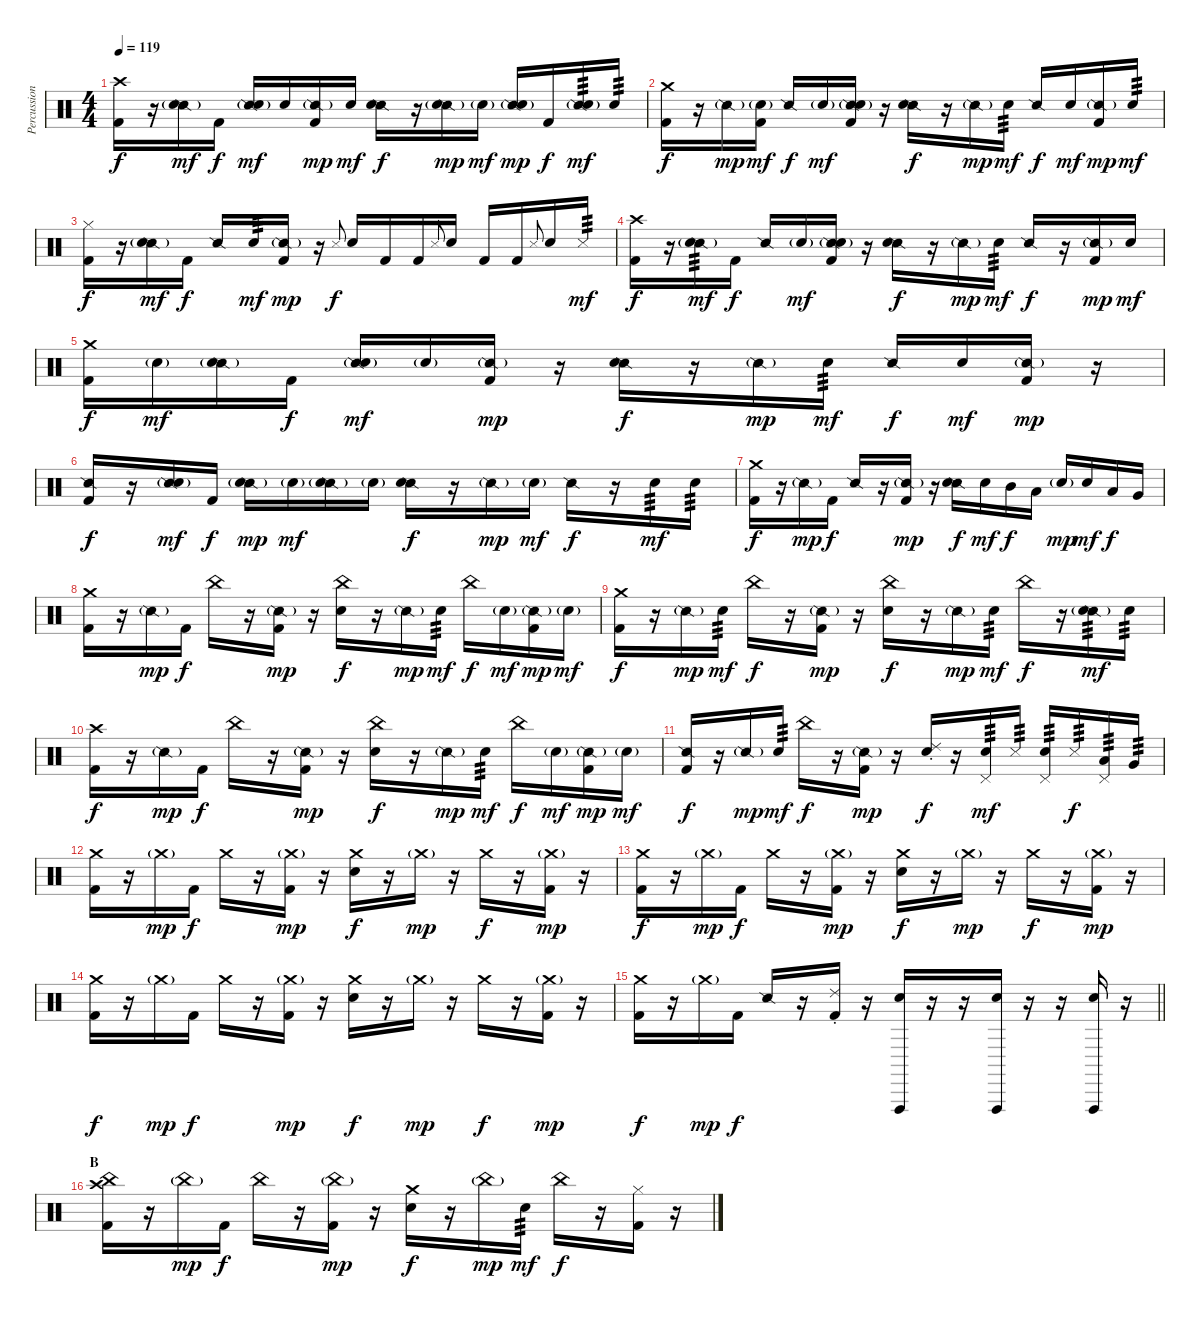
\track ("Percussion" "Percussion") {instrument percussion}
\staff {score}
\articulation defaults
\ts (4 4)
\tempo 119
\clef neutral
\ks c
("Crash high (hit)" "Kick (hit) 2").16{dy f} r.16 ("Snare (side stick) 2"{g} "Snare (hit) 2"{g}).16{dy mf} "Kick (hit) 2".16{dy f} ("Snare (side stick) 2" "Snare (hit) 2"{g}).16{dy mf} "Snare (hit) 2".16 ("Snare (side stick) 2"{g} "Kick (hit) 2").16{dy mp} "Snare (hit) 2".16{dy mf} ("Snare (side stick) 2" "Snare (hit) 2").16{dy f} r.16 ("Snare (side stick) 2"{g} "Snare (hit) 2"{g}).16{dy mp} "Snare (hit) 2"{g}.16{dy mf} ("Snare (side stick) 2" "Snare (hit) 2"{g}).16{dy mp} "Kick (hit) 2".16{dy f} ("Snare (side stick) 2"{g} "Snare (hit) 2").16{tp 3 dy mf} "Snare (hit) 2".16{tp 3} |
("Crash medium (hit)" "Kick (hit) 2").16{dy f} r.16 "Snare (side stick) 2"{g}.16{dy mp} ("Snare (hit) 2"{g} "Kick (hit) 2").16{dy mf} "Snare (side stick) 2".16{dy f} "Snare (hit) 2"{g}.16{dy mf} ("Snare (side stick) 2"{g} "Snare (hit) 2"{g} "Kick (hit) 2").16 r.16 ("Snare (side stick) 2" "Snare (hit) 2").16{dy f} r.16 "Snare (side stick) 2"{g}.16{dy mp} "Snare (hit) 2".16{tp 3 dy mf} "Snare (side stick) 2".16{dy f} "Snare (hit) 2".16{dy mf} ("Snare (side stick) 2"{g} "Kick (hit) 2").16{dy mp} "Snare (hit) 2".16{tp 3 dy mf} |
("Hi-Hat (closed)" "Kick (hit) 2").16{dy f} r.16 ("Snare (side stick) 2"{g} "Snare (hit) 2").16{dy mf} "Kick (hit) 2".16{dy f} "Snare (side stick) 2".16 "Snare (hit) 2".16{tp 3 dy mf} ("Snare (side stick) 2"{g} "Kick (hit) 2").16{dy mp} r.16 "Metronome (hit)".8{gr onbeat dy f} "Snare (hit) 2".16 "Kick (hit) 2".16 "Kick (hit) 2".16 "Metronome (hit)".8{gr onbeat} "Snare (hit) 2".16 "Kick (hit) 2".16 "Kick (hit) 2".16 "Metronome (hit)".8{gr onbeat} "Snare (hit) 2".16 "Metronome (hit)".16{tp 3 dy mf} |
("Crash high (hit)" "Kick (hit) 2").16{dy f} r.16 ("Snare (side stick) 2"{g} "Snare (hit) 2").16{tp 3 dy mf} "Kick (hit) 2".16{dy f} "Snare (side stick) 2".16 "Snare (hit) 2"{g}.16{dy mf} ("Snare (side stick) 2"{g} "Snare (hit) 2"{g} "Kick (hit) 2").16 r.16 ("Snare (side stick) 2" "Snare (hit) 2").16{dy f} r.16 "Snare (side stick) 2"{g}.16{dy mp} "Snare (hit) 2".16{tp 3 dy mf} "Snare (side stick) 2".16{dy f} r.16 ("Snare (side stick) 2"{g} "Kick (hit) 2").16{dy mp} "Snare (hit) 2".16{dy mf} |
("Crash medium (hit)" "Kick (hit) 2").16{dy f} "Snare (hit) 2"{g}.16{dy mf} ("Snare (side stick) 2"{g} "Snare (hit) 2"{g}).16 "Kick (hit) 2".16{dy f} ("Snare (side stick) 2" "Snare (hit) 2"{g}).16{dy mf} "Snare (hit) 2"{g}.16 ("Snare (side stick) 2"{g} "Kick (hit) 2").16{dy mp} r.16 ("Snare (side stick) 2" "Snare (hit) 2").16{dy f} r.16 "Snare (side stick) 2"{g}.16{dy mp} "Snare (hit) 2".16{tp 3 dy mf} "Snare (side stick) 2".16{dy f} "Snare (hit) 2".16{dy mf} ("Snare (side stick) 2"{g} "Kick (hit) 2").16{dy mp} r.16 |
("Snare (side stick) 2" "Kick (hit) 2").16{dy f} r.16 ("Snare (side stick) 2"{g} "Snare (hit) 2"{g}).16{dy mf} "Kick (hit) 2".16{dy f} ("Snare (side stick) 2" "Snare (hit) 2"{g}).16{dy mp} "Snare (hit) 2"{g}.16{dy mf} ("Snare (side stick) 2"{g} "Snare (hit) 2").16 "Snare (hit) 2"{g}.16 ("Snare (side stick) 2" "Snare (hit) 2").16{dy f} r.16 "Snare (side stick) 2"{g}.16{dy mp} "Snare (hit) 2"{g}.16{dy mf} "Snare (side stick) 2".16{dy f} r.16 "Snare (hit) 2".16{tp 3 dy mf} "Snare (hit) 2".16{tp 3} |
("Crash medium (hit)" "Kick (hit) 2").16{dy f} r.16 "Snare (side stick) 2"{g}.16{dy mp} "Kick (hit) 2".16{dy f} "Snare (side stick) 2".16 r.16 ("Snare (side stick) 2"{g} "Kick (hit) 2").16{dy mp} r.16 ("Snare (side stick) 2" "Snare (hit) 2").16{dy f} "Snare (hit) 2".16{dy mf} "Mid Tom (hit)".16{dy f} "Low Tom (hit)".16 "Snare (hit) 2"{g}.16{dy mp} "Snare (hit) 2".16{dy mf} "Low Tom (hit)".16{dy f} "Very Low Tom (hit)".16 |
("Crash medium (hit)" "Kick (hit) 2").16 r.16 "Snare (side stick) 2"{g}.16{dy mp} "Kick (hit) 2".16{dy f} "China (hit)".16 r.16 ("Snare (side stick) 2"{g} "Kick (hit) 2").16{dy mp} r.16 ("China (hit)" "Snare (hit) 2").16{dy f} r.16 "Snare (side stick) 2"{g}.16{dy mp} "Snare (hit) 2".16{tp 3 dy mf} "China (hit)".16{dy f} "Snare (hit) 2"{g}.16{dy mf} ("Snare (side stick) 2"{g} "Kick (hit) 2").16{dy mp} "Snare (hit) 2"{g}.16{dy mf} |
("Crash medium (hit)" "Kick (hit) 2").16{dy f} r.16 "Snare (side stick) 2"{g}.16{dy mp} "Snare (hit) 2".16{tp 3 dy mf} "China (hit)".16{dy f} r.16 ("Snare (side stick) 2"{g} "Kick (hit) 2").16{dy mp} r.16 ("China (hit)" "Snare (hit) 2").16{dy f} r.16 "Snare (side stick) 2"{g}.16{dy mp} "Snare (hit) 2".16{tp 3 dy mf} "China (hit)".16{dy f} r.16 ("Snare (side stick) 2"{g} "Snare (hit) 2").16{tp 3 dy mf} "Snare (hit) 2".16{tp 3} |
("Crash high (hit)" "Kick (hit) 2").16{dy f} r.16 "Snare (side stick) 2"{g}.16{dy mp} "Kick (hit) 2".16{dy f} "China (hit)".16 r.16 ("Snare (side stick) 2"{g} "Kick (hit) 2").16{dy mp} r.16 ("China (hit)" "Snare (hit) 2").16{dy f} r.16 "Snare (side stick) 2"{g}.16{dy mp} "Snare (hit) 2".16{tp 3 dy mf} "China (hit)".16{dy f} "Snare (hit) 2"{g}.16{dy mf} ("Snare (side stick) 2"{g} "Kick (hit) 2").16{dy mp} "Snare (hit) 2"{g}.16{dy mf} |
("Snare (side stick) 2" "Kick (hit) 2").16{dy f} r.16 "Snare (side stick) 2"{g}.16{dy mp} "Snare (hit) 2".16{tp 3 dy mf} "China (hit)".16{dy f} r.16 ("Snare (side stick) 2"{g} "Kick (hit) 2").16{dy mp} r.16 ("Ride (choke) 2" "Snare (hit) 2").16{dy f} r.16 ("Pedal Hi-Hat (hit)" "Snare (hit) 2").16{tp 3 dy mf} "Metronome (hit)".16{tp 3} ("Pedal Hi-Hat (hit)" "Snare (hit) 2").16{tp 3} "Metronome (hit)".16{tp 3 dy f} ("Pedal Hi-Hat (hit)" "Low Tom (hit)").16{tp 3} "Very Low Tom (hit)".16{tp 3} |
("Crash medium (hit)" "Kick (hit) 2").16 r.16 "Crash medium (hit)"{g}.16{dy mp} "Kick (hit) 2".16{dy f} "Crash medium (hit)".16 r.16 ("Crash medium (hit)"{g} "Kick (hit) 2").16{dy mp} r.16 ("Crash medium (hit)" "Snare (hit) 2").16{dy f} r.16 "Crash medium (hit)"{g}.16{dy mp} r.16 "Crash medium (hit)".16{dy f} r.16 ("Crash medium (hit)"{g} "Kick (hit) 2").16{dy mp} r.16 |
("Crash medium (hit)" "Kick (hit) 2").16{dy f} r.16 "Crash medium (hit)"{g}.16{dy mp} "Kick (hit) 2".16{dy f} "Crash medium (hit)".16 r.16 ("Crash medium (hit)"{g} "Kick (hit) 2").16{dy mp} r.16 ("Crash medium (hit)" "Snare (hit) 2").16{dy f} r.16 "Crash medium (hit)"{g}.16{dy mp} r.16 "Crash medium (hit)".16{dy f} r.16 ("Crash medium (hit)"{g} "Kick (hit) 2").16{dy mp} r.16 |
("Crash medium (hit)" "Kick (hit) 2").16{dy f} r.16 "Crash medium (hit)"{g}.16{dy mp} "Kick (hit) 2".16{dy f} "Crash medium (hit)".16 r.16 ("Crash medium (hit)"{g} "Kick (hit) 2").16{dy mp} r.16 ("Crash medium (hit)" "Snare (hit) 2").16{dy f} r.16 "Crash medium (hit)"{g}.16{dy mp} r.16 "Crash medium (hit)".16{dy f} r.16 ("Crash medium (hit)"{g} "Kick (hit) 2").16{dy mp} r.16 |
\barLineRight lightlight
("Crash medium (hit)" "Kick (hit) 2").16{dy f} r.16 "Crash medium (hit)"{g}.16{dy mp} "Kick (hit) 2".16{dy f} "Snare (side stick) 2".16 r.16 ("Ride (choke) 2" "Kick (hit) 2").16 r.16 ("Vibraslap (hit)" "Snare (hit) 2").16 r.16 r.16 ("Vibraslap (hit)" "Snare (hit) 2").16 r.16 r.16 ("Vibraslap (hit)" "Snare (hit) 2").16 r.16 |
\section ("" "B")
("Crash high (hit)" "China (hit)" "Kick (hit) 2").16 r.16 "China (hit)"{g}.16{dy mp} "Kick (hit) 2".16{dy f} "China (hit)".16 r.16 ("China (hit)"{g} "Kick (hit) 2").16{dy mp} r.16 ("Crash medium (hit)" "Snare (hit) 2").16{dy f} r.16 "China (hit)"{g}.16{dy mp} "Snare (hit) 2".16{tp 3 dy mf} "China (hit)".16{dy f} r.16 ("Hi-Hat (closed)" "Kick (hit) 2").16 r.16
